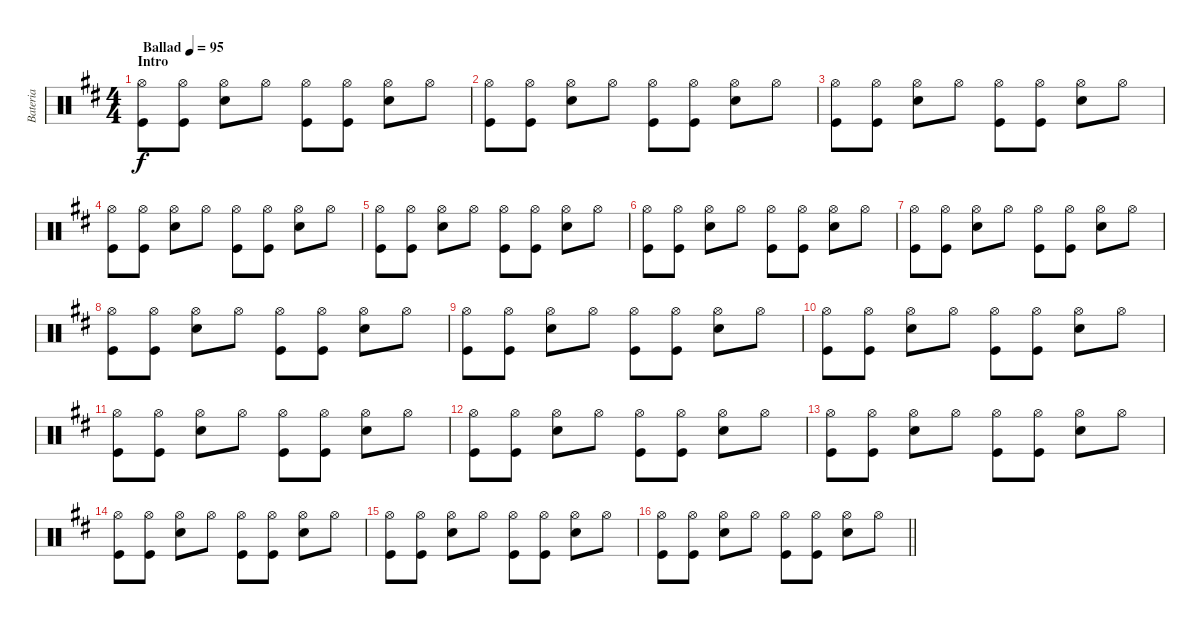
\track ("Bateria" "Bateria") {instrument percussion}
\staff {score}
\articulation defaults
\ts (4 4)
\section ("" "Intro")
\tempo (95 "Ballad")
\clef neutral
\ks d
("Hi-Hat (open)" "Kick (hit)").8{dy f} ("Hi-Hat (open)" "Kick (hit)").8 ("Hi-Hat (open)" "Snare (hit) 2").8 "Hi-Hat (open)".8 ("Hi-Hat (open)" "Kick (hit)").8 ("Hi-Hat (open)" "Kick (hit)").8 ("Hi-Hat (open)" "Snare (hit) 2").8 "Hi-Hat (open)".8 |
("Hi-Hat (open)" "Kick (hit)").8 ("Hi-Hat (open)" "Kick (hit)").8 ("Hi-Hat (open)" "Snare (hit) 2").8 "Hi-Hat (open)".8 ("Hi-Hat (open)" "Kick (hit)").8 ("Hi-Hat (open)" "Kick (hit)").8 ("Hi-Hat (open)" "Snare (hit) 2").8 "Hi-Hat (open)".8 |
("Hi-Hat (open)" "Kick (hit)").8 ("Hi-Hat (open)" "Kick (hit)").8 ("Hi-Hat (open)" "Snare (hit) 2").8 "Hi-Hat (open)".8 ("Hi-Hat (open)" "Kick (hit)").8 ("Hi-Hat (open)" "Kick (hit)").8 ("Hi-Hat (open)" "Snare (hit) 2").8 "Hi-Hat (open)".8 |
("Hi-Hat (open)" "Kick (hit)").8 ("Hi-Hat (open)" "Kick (hit)").8 ("Hi-Hat (open)" "Snare (hit) 2").8 "Hi-Hat (open)".8 ("Hi-Hat (open)" "Kick (hit)").8 ("Hi-Hat (open)" "Kick (hit)").8 ("Hi-Hat (open)" "Snare (hit) 2").8 "Hi-Hat (open)".8 |
("Hi-Hat (open)" "Kick (hit)").8 ("Hi-Hat (open)" "Kick (hit)").8 ("Hi-Hat (open)" "Snare (hit) 2").8 "Hi-Hat (open)".8 ("Hi-Hat (open)" "Kick (hit)").8 ("Hi-Hat (open)" "Kick (hit)").8 ("Hi-Hat (open)" "Snare (hit) 2").8 "Hi-Hat (open)".8 |
("Hi-Hat (open)" "Kick (hit)").8 ("Hi-Hat (open)" "Kick (hit)").8 ("Hi-Hat (open)" "Snare (hit) 2").8 "Hi-Hat (open)".8 ("Hi-Hat (open)" "Kick (hit)").8 ("Hi-Hat (open)" "Kick (hit)").8 ("Hi-Hat (open)" "Snare (hit) 2").8 "Hi-Hat (open)".8 |
("Hi-Hat (open)" "Kick (hit)").8 ("Hi-Hat (open)" "Kick (hit)").8 ("Hi-Hat (open)" "Snare (hit) 2").8 "Hi-Hat (open)".8 ("Hi-Hat (open)" "Kick (hit)").8 ("Hi-Hat (open)" "Kick (hit)").8 ("Hi-Hat (open)" "Snare (hit) 2").8 "Hi-Hat (open)".8 |
("Hi-Hat (open)" "Kick (hit)").8 ("Hi-Hat (open)" "Kick (hit)").8 ("Hi-Hat (open)" "Snare (hit) 2").8 "Hi-Hat (open)".8 ("Hi-Hat (open)" "Kick (hit)").8 ("Hi-Hat (open)" "Kick (hit)").8 ("Hi-Hat (open)" "Snare (hit) 2").8 "Hi-Hat (open)".8 |
("Hi-Hat (open)" "Kick (hit)").8 ("Hi-Hat (open)" "Kick (hit)").8 ("Hi-Hat (open)" "Snare (hit) 2").8 "Hi-Hat (open)".8 ("Hi-Hat (open)" "Kick (hit)").8 ("Hi-Hat (open)" "Kick (hit)").8 ("Hi-Hat (open)" "Snare (hit) 2").8 "Hi-Hat (open)".8 |
("Hi-Hat (open)" "Kick (hit)").8 ("Hi-Hat (open)" "Kick (hit)").8 ("Hi-Hat (open)" "Snare (hit) 2").8 "Hi-Hat (open)".8 ("Hi-Hat (open)" "Kick (hit)").8 ("Hi-Hat (open)" "Kick (hit)").8 ("Hi-Hat (open)" "Snare (hit) 2").8 "Hi-Hat (open)".8 |
("Hi-Hat (open)" "Kick (hit)").8 ("Hi-Hat (open)" "Kick (hit)").8 ("Hi-Hat (open)" "Snare (hit) 2").8 "Hi-Hat (open)".8 ("Hi-Hat (open)" "Kick (hit)").8 ("Hi-Hat (open)" "Kick (hit)").8 ("Hi-Hat (open)" "Snare (hit) 2").8 "Hi-Hat (open)".8 |
("Hi-Hat (open)" "Kick (hit)").8 ("Hi-Hat (open)" "Kick (hit)").8 ("Hi-Hat (open)" "Snare (hit) 2").8 "Hi-Hat (open)".8 ("Hi-Hat (open)" "Kick (hit)").8 ("Hi-Hat (open)" "Kick (hit)").8 ("Hi-Hat (open)" "Snare (hit) 2").8 "Hi-Hat (open)".8 |
("Hi-Hat (open)" "Kick (hit)").8 ("Hi-Hat (open)" "Kick (hit)").8 ("Hi-Hat (open)" "Snare (hit) 2").8 "Hi-Hat (open)".8 ("Hi-Hat (open)" "Kick (hit)").8 ("Hi-Hat (open)" "Kick (hit)").8 ("Hi-Hat (open)" "Snare (hit) 2").8 "Hi-Hat (open)".8 |
("Hi-Hat (open)" "Kick (hit)").8 ("Hi-Hat (open)" "Kick (hit)").8 ("Hi-Hat (open)" "Snare (hit) 2").8 "Hi-Hat (open)".8 ("Hi-Hat (open)" "Kick (hit)").8 ("Hi-Hat (open)" "Kick (hit)").8 ("Hi-Hat (open)" "Snare (hit) 2").8 "Hi-Hat (open)".8 |
("Hi-Hat (open)" "Kick (hit)").8 ("Hi-Hat (open)" "Kick (hit)").8 ("Hi-Hat (open)" "Snare (hit) 2").8 "Hi-Hat (open)".8 ("Hi-Hat (open)" "Kick (hit)").8 ("Hi-Hat (open)" "Kick (hit)").8 ("Hi-Hat (open)" "Snare (hit) 2").8 "Hi-Hat (open)".8 |
\barLineRight lightlight
("Hi-Hat (open)" "Kick (hit)").8 ("Hi-Hat (open)" "Kick (hit)").8 ("Hi-Hat (open)" "Snare (hit) 2").8 "Hi-Hat (open)".8 ("Hi-Hat (open)" "Kick (hit)").8 ("Hi-Hat (open)" "Kick (hit)").8 ("Hi-Hat (open)" "Snare (hit) 2").8 "Hi-Hat (open)".8
